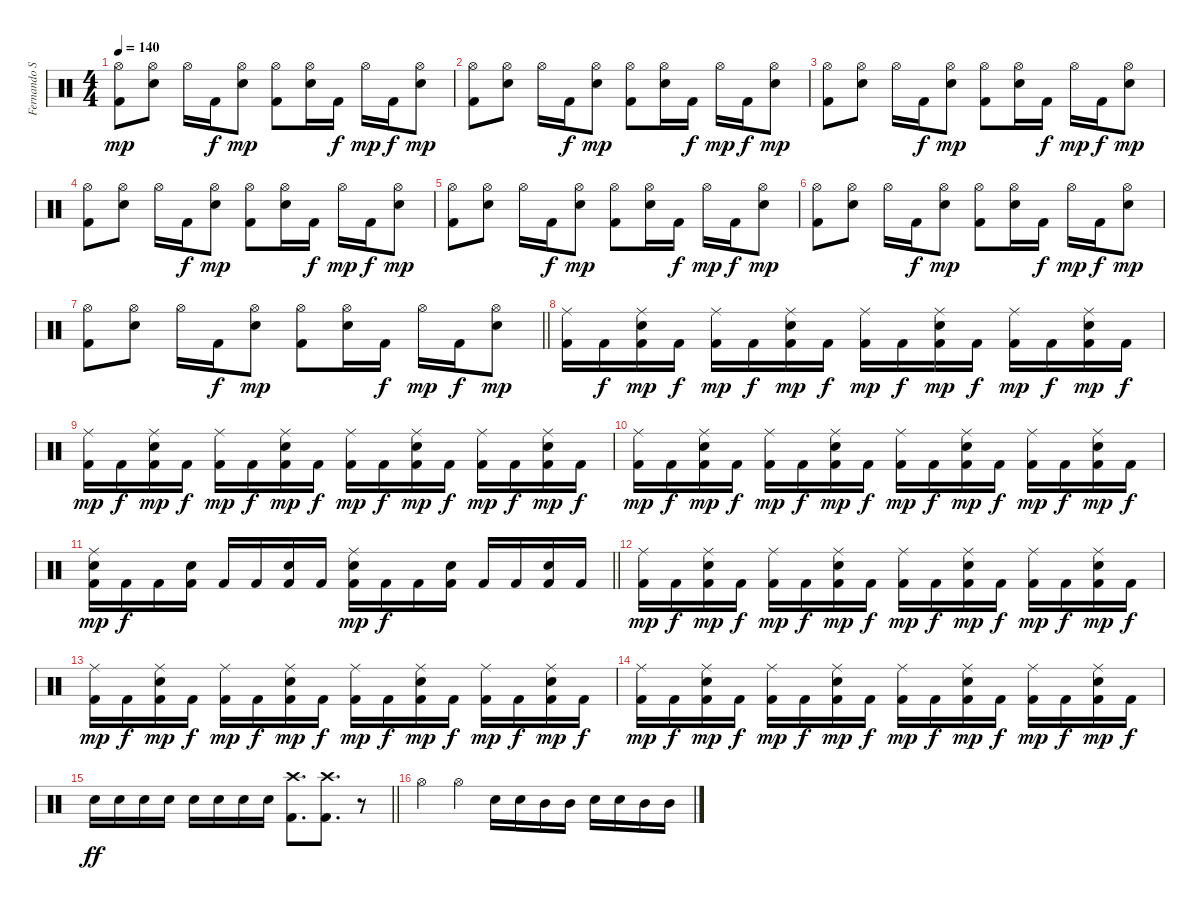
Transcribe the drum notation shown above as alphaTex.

\track ("Fernando Scarcella" "Fernando S") {instrument percussion}
\staff {score}
\articulation defaults
\ts (4 4)
\tempo 140
\clef neutral
\ks c
("Hi-Hat (open)" "Kick (hit) 2").8{dy mp} ("Hi-Hat (open)" "Snare (hit) 2").8 "Hi-Hat (open)".16 "Kick (hit) 2".16{dy f} ("Hi-Hat (open)" "Snare (hit) 2").8{dy mp} ("Hi-Hat (open)" "Kick (hit) 2").8 ("Hi-Hat (open)" "Snare (hit) 2").16 "Kick (hit) 2".16{dy f} "Hi-Hat (open)".16{dy mp} "Kick (hit) 2".16{dy f} ("Hi-Hat (open)" "Snare (hit) 2").8{dy mp} |
("Hi-Hat (open)" "Kick (hit) 2").8 ("Hi-Hat (open)" "Snare (hit) 2").8 "Hi-Hat (open)".16 "Kick (hit) 2".16{dy f} ("Hi-Hat (open)" "Snare (hit) 2").8{dy mp} ("Hi-Hat (open)" "Kick (hit) 2").8 ("Hi-Hat (open)" "Snare (hit) 2").16 "Kick (hit) 2".16{dy f} "Hi-Hat (open)".16{dy mp} "Kick (hit) 2".16{dy f} ("Hi-Hat (open)" "Snare (hit) 2").8{dy mp} |
("Hi-Hat (open)" "Kick (hit) 2").8 ("Hi-Hat (open)" "Snare (hit) 2").8 "Hi-Hat (open)".16 "Kick (hit) 2".16{dy f} ("Hi-Hat (open)" "Snare (hit) 2").8{dy mp} ("Hi-Hat (open)" "Kick (hit) 2").8 ("Hi-Hat (open)" "Snare (hit) 2").16 "Kick (hit) 2".16{dy f} "Hi-Hat (open)".16{dy mp} "Kick (hit) 2".16{dy f} ("Hi-Hat (open)" "Snare (hit) 2").8{dy mp} |
("Hi-Hat (open)" "Kick (hit) 2").8 ("Hi-Hat (open)" "Snare (hit) 2").8 "Hi-Hat (open)".16 "Kick (hit) 2".16{dy f} ("Hi-Hat (open)" "Snare (hit) 2").8{dy mp} ("Hi-Hat (open)" "Kick (hit) 2").8 ("Hi-Hat (open)" "Snare (hit) 2").16 "Kick (hit) 2".16{dy f} "Hi-Hat (open)".16{dy mp} "Kick (hit) 2".16{dy f} ("Hi-Hat (open)" "Snare (hit) 2").8{dy mp} |
("Hi-Hat (open)" "Kick (hit) 2").8 ("Hi-Hat (open)" "Snare (hit) 2").8 "Hi-Hat (open)".16 "Kick (hit) 2".16{dy f} ("Hi-Hat (open)" "Snare (hit) 2").8{dy mp} ("Hi-Hat (open)" "Kick (hit) 2").8 ("Hi-Hat (open)" "Snare (hit) 2").16 "Kick (hit) 2".16{dy f} "Hi-Hat (open)".16{dy mp} "Kick (hit) 2".16{dy f} ("Hi-Hat (open)" "Snare (hit) 2").8{dy mp} |
("Hi-Hat (open)" "Kick (hit) 2").8 ("Hi-Hat (open)" "Snare (hit) 2").8 "Hi-Hat (open)".16 "Kick (hit) 2".16{dy f} ("Hi-Hat (open)" "Snare (hit) 2").8{dy mp} ("Hi-Hat (open)" "Kick (hit) 2").8 ("Hi-Hat (open)" "Snare (hit) 2").16 "Kick (hit) 2".16{dy f} "Hi-Hat (open)".16{dy mp} "Kick (hit) 2".16{dy f} ("Hi-Hat (open)" "Snare (hit) 2").8{dy mp} |
\barLineRight lightlight
("Hi-Hat (open)" "Kick (hit) 2").8 ("Hi-Hat (open)" "Snare (hit) 2").8 "Hi-Hat (open)".16 "Kick (hit) 2".16{dy f} ("Hi-Hat (open)" "Snare (hit) 2").8{dy mp} ("Hi-Hat (open)" "Kick (hit) 2").8 ("Hi-Hat (open)" "Snare (hit) 2").16 "Kick (hit) 2".16{dy f} "Hi-Hat (open)".16{dy mp} "Kick (hit) 2".16{dy f} ("Hi-Hat (open)" "Snare (hit) 2").8{dy mp} |
("Ride (middle)" "Kick (hit) 2").16 "Kick (hit) 2".16{dy f} ("Ride (middle)" "Snare (hit) 2" "Kick (hit) 2").16{dy mp} "Kick (hit) 2".16{dy f} ("Ride (middle)" "Kick (hit) 2").16{dy mp} "Kick (hit) 2".16{dy f} ("Ride (middle)" "Snare (hit) 2" "Kick (hit) 2").16{dy mp} "Kick (hit) 2".16{dy f} ("Ride (middle)" "Kick (hit) 2").16{dy mp} "Kick (hit) 2".16{dy f} ("Ride (middle)" "Snare (hit) 2" "Kick (hit) 2").16{dy mp} "Kick (hit) 2".16{dy f} ("Ride (middle)" "Kick (hit) 2").16{dy mp} "Kick (hit) 2".16{dy f} ("Ride (middle)" "Snare (hit) 2" "Kick (hit) 2").16{dy mp} "Kick (hit) 2".16{dy f} |
("Ride (middle)" "Kick (hit) 2").16{dy mp} "Kick (hit) 2".16{dy f} ("Ride (middle)" "Snare (hit) 2" "Kick (hit) 2").16{dy mp} "Kick (hit) 2".16{dy f} ("Ride (middle)" "Kick (hit) 2").16{dy mp} "Kick (hit) 2".16{dy f} ("Ride (middle)" "Snare (hit) 2" "Kick (hit) 2").16{dy mp} "Kick (hit) 2".16{dy f} ("Ride (middle)" "Kick (hit) 2").16{dy mp} "Kick (hit) 2".16{dy f} ("Ride (middle)" "Snare (hit) 2" "Kick (hit) 2").16{dy mp} "Kick (hit) 2".16{dy f} ("Ride (middle)" "Kick (hit) 2").16{dy mp} "Kick (hit) 2".16{dy f} ("Ride (middle)" "Snare (hit) 2" "Kick (hit) 2").16{dy mp} "Kick (hit) 2".16{dy f} |
("Ride (middle)" "Kick (hit) 2").16{dy mp} "Kick (hit) 2".16{dy f} ("Ride (middle)" "Snare (hit) 2" "Kick (hit) 2").16{dy mp} "Kick (hit) 2".16{dy f} ("Ride (middle)" "Kick (hit) 2").16{dy mp} "Kick (hit) 2".16{dy f} ("Ride (middle)" "Snare (hit) 2" "Kick (hit) 2").16{dy mp} "Kick (hit) 2".16{dy f} ("Ride (middle)" "Kick (hit) 2").16{dy mp} "Kick (hit) 2".16{dy f} ("Ride (middle)" "Snare (hit) 2" "Kick (hit) 2").16{dy mp} "Kick (hit) 2".16{dy f} ("Ride (middle)" "Kick (hit) 2").16{dy mp} "Kick (hit) 2".16{dy f} ("Ride (middle)" "Snare (hit) 2" "Kick (hit) 2").16{dy mp} "Kick (hit) 2".16{dy f} |
\barLineRight lightlight
("Ride (middle)" "Snare (hit) 2" "Kick (hit) 2").16{dy mp} "Kick (hit) 2".16{dy f} "Kick (hit) 2".16 ("Snare (hit) 2" "Kick (hit) 2").16 "Kick (hit) 2".16 "Kick (hit) 2".16 ("Snare (hit) 2" "Kick (hit) 2").16 "Kick (hit) 2".16 ("Ride (middle)" "Snare (hit) 2" "Kick (hit) 2").16{dy mp} "Kick (hit) 2".16{dy f} "Kick (hit) 2".16 ("Snare (hit) 2" "Kick (hit) 2").16 "Kick (hit) 2".16 "Kick (hit) 2".16 ("Snare (hit) 2" "Kick (hit) 2").16 "Kick (hit) 2".16 |
("Ride (middle)" "Kick (hit) 2").16{dy mp} "Kick (hit) 2".16{dy f} ("Ride (middle)" "Snare (hit) 2" "Kick (hit) 2").16{dy mp} "Kick (hit) 2".16{dy f} ("Ride (middle)" "Kick (hit) 2").16{dy mp} "Kick (hit) 2".16{dy f} ("Ride (middle)" "Snare (hit) 2" "Kick (hit) 2").16{dy mp} "Kick (hit) 2".16{dy f} ("Ride (middle)" "Kick (hit) 2").16{dy mp} "Kick (hit) 2".16{dy f} ("Ride (middle)" "Snare (hit) 2" "Kick (hit) 2").16{dy mp} "Kick (hit) 2".16{dy f} ("Ride (middle)" "Kick (hit) 2").16{dy mp} "Kick (hit) 2".16{dy f} ("Ride (middle)" "Snare (hit) 2" "Kick (hit) 2").16{dy mp} "Kick (hit) 2".16{dy f} |
("Ride (middle)" "Kick (hit) 2").16{dy mp} "Kick (hit) 2".16{dy f} ("Ride (middle)" "Snare (hit) 2" "Kick (hit) 2").16{dy mp} "Kick (hit) 2".16{dy f} ("Ride (middle)" "Kick (hit) 2").16{dy mp} "Kick (hit) 2".16{dy f} ("Ride (middle)" "Snare (hit) 2" "Kick (hit) 2").16{dy mp} "Kick (hit) 2".16{dy f} ("Ride (middle)" "Kick (hit) 2").16{dy mp} "Kick (hit) 2".16{dy f} ("Ride (middle)" "Snare (hit) 2" "Kick (hit) 2").16{dy mp} "Kick (hit) 2".16{dy f} ("Ride (middle)" "Kick (hit) 2").16{dy mp} "Kick (hit) 2".16{dy f} ("Ride (middle)" "Snare (hit) 2" "Kick (hit) 2").16{dy mp} "Kick (hit) 2".16{dy f} |
("Ride (middle)" "Kick (hit) 2").16{dy mp} "Kick (hit) 2".16{dy f} ("Ride (middle)" "Snare (hit) 2" "Kick (hit) 2").16{dy mp} "Kick (hit) 2".16{dy f} ("Ride (middle)" "Kick (hit) 2").16{dy mp} "Kick (hit) 2".16{dy f} ("Ride (middle)" "Snare (hit) 2" "Kick (hit) 2").16{dy mp} "Kick (hit) 2".16{dy f} ("Ride (middle)" "Kick (hit) 2").16{dy mp} "Kick (hit) 2".16{dy f} ("Ride (middle)" "Snare (hit) 2" "Kick (hit) 2").16{dy mp} "Kick (hit) 2".16{dy f} ("Ride (middle)" "Kick (hit) 2").16{dy mp} "Kick (hit) 2".16{dy f} ("Ride (middle)" "Snare (hit) 2" "Kick (hit) 2").16{dy mp} "Kick (hit) 2".16{dy f} |
\barLineRight lightlight "Snare (hit) 2".16{dy ff} "Snare (hit) 2".16 "Snare (hit) 2".16 "Snare (hit) 2".16 "Snare (hit) 2".16 "Snare (hit) 2".16 "Snare (hit) 2".16 "Snare (hit) 2".16
("Crash high (hit)" "Kick (hit) 2").8{d} ("Crash high (hit)" "Kick (hit) 2").8{d} r.8 |
"Hi-Hat (open)".4 "Hi-Hat (open)".4 "Snare (hit) 2".16 "Snare (hit) 2".16 "Mid Tom (hit)".16 "Mid Tom (hit)".16 "Snare (hit) 2".16 "Snare (hit) 2".16 "Mid Tom (hit)".16 "Mid Tom (hit)".16
